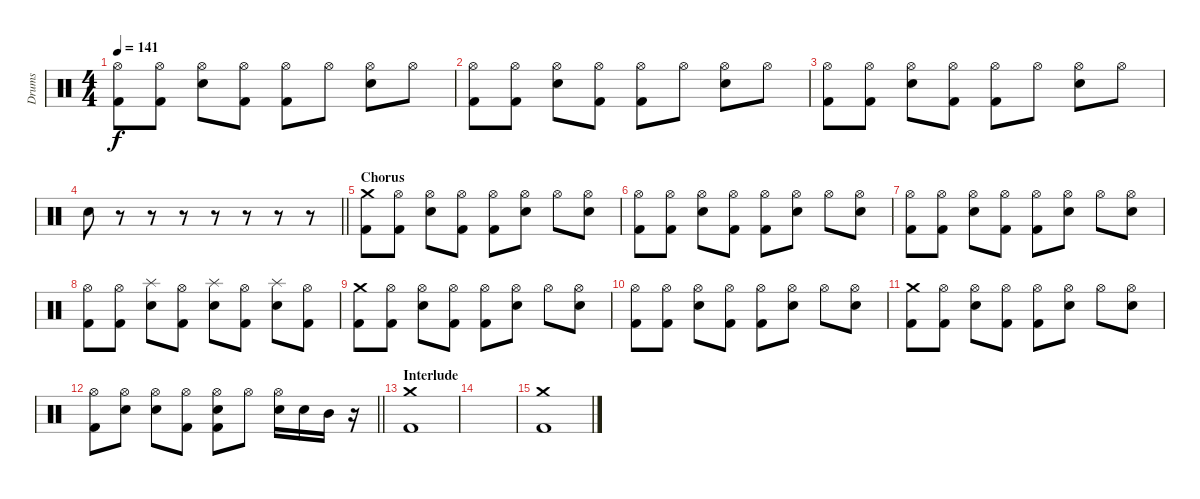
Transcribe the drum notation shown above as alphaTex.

\track ("Drums" "Drums") {instrument percussion}
\staff {score}
\articulation defaults
\ts (4 4)
\tempo 141
\clef neutral
\ks c
("Hi-Hat (open)" "Kick (hit) 2").8{dy f} ("Hi-Hat (open)" "Kick (hit) 2").8 ("Hi-Hat (open)" "Electric Snare (hit)").8 ("Hi-Hat (open)" "Kick (hit) 2").8 ("Hi-Hat (open)" "Kick (hit) 2").8 "Hi-Hat (open)".8 ("Hi-Hat (open)" "Electric Snare (hit)").8 "Hi-Hat (open)".8 |
("Hi-Hat (open)" "Kick (hit) 2").8 ("Hi-Hat (open)" "Kick (hit) 2").8 ("Hi-Hat (open)" "Electric Snare (hit)").8 ("Hi-Hat (open)" "Kick (hit) 2").8 ("Hi-Hat (open)" "Kick (hit) 2").8 "Hi-Hat (open)".8 ("Hi-Hat (open)" "Electric Snare (hit)").8 "Hi-Hat (open)".8 |
("Hi-Hat (open)" "Kick (hit) 2").8 ("Hi-Hat (open)" "Kick (hit) 2").8 ("Hi-Hat (open)" "Electric Snare (hit)").8 ("Hi-Hat (open)" "Kick (hit) 2").8 ("Hi-Hat (open)" "Kick (hit) 2").8 "Hi-Hat (open)".8 ("Hi-Hat (open)" "Electric Snare (hit)").8 "Hi-Hat (open)".8 |
\barLineRight lightlight "Electric Snare (hit)".8
r.8 r.8 r.8 r.8 r.8 r.8 r.8 |
\section ("" "Chorus")
("Crash medium (hit)" "Kick (hit) 2").8 ("Hi-Hat (open)" "Kick (hit) 2").8 ("Hi-Hat (open)" "Electric Snare (hit)").8 ("Hi-Hat (open)" "Kick (hit) 2").8 ("Hi-Hat (open)" "Kick (hit) 2").8 ("Hi-Hat (open)" "Electric Snare (hit)").8 "Hi-Hat (open)".8 ("Hi-Hat (open)" "Electric Snare (hit)").8 |
("Hi-Hat (open)" "Kick (hit) 2").8 ("Hi-Hat (open)" "Kick (hit) 2").8 ("Hi-Hat (open)" "Electric Snare (hit)").8 ("Hi-Hat (open)" "Kick (hit) 2").8 ("Hi-Hat (open)" "Kick (hit) 2").8 ("Hi-Hat (open)" "Electric Snare (hit)").8 "Hi-Hat (open)".8 ("Hi-Hat (open)" "Electric Snare (hit)").8 |
("Hi-Hat (open)" "Kick (hit) 2").8 ("Hi-Hat (open)" "Kick (hit) 2").8 ("Hi-Hat (open)" "Electric Snare (hit)").8 ("Hi-Hat (open)" "Kick (hit) 2").8 ("Hi-Hat (open)" "Kick (hit) 2").8 ("Hi-Hat (open)" "Electric Snare (hit)").8 "Hi-Hat (open)".8 ("Hi-Hat (open)" "Electric Snare (hit)").8 |
("Hi-Hat (open)" "Kick (hit) 2").8 ("Hi-Hat (open)" "Kick (hit) 2").8 ("Splash (hit)" "Electric Snare (hit)").8 ("Hi-Hat (open)" "Kick (hit) 2").8 ("Splash (hit)" "Electric Snare (hit)").8 ("Hi-Hat (open)" "Kick (hit) 2").8 ("Splash (hit)" "Electric Snare (hit)").8 ("Hi-Hat (open)" "Kick (hit) 2").8 |
("Crash medium (hit)" "Kick (hit) 2").8 ("Hi-Hat (open)" "Kick (hit) 2").8 ("Hi-Hat (open)" "Electric Snare (hit)").8 ("Hi-Hat (open)" "Kick (hit) 2").8 ("Hi-Hat (open)" "Kick (hit) 2").8 ("Hi-Hat (open)" "Electric Snare (hit)").8 "Hi-Hat (open)".8 ("Hi-Hat (open)" "Electric Snare (hit)").8 |
("Hi-Hat (open)" "Kick (hit) 2").8 ("Hi-Hat (open)" "Kick (hit) 2").8 ("Hi-Hat (open)" "Electric Snare (hit)").8 ("Hi-Hat (open)" "Kick (hit) 2").8 ("Hi-Hat (open)" "Kick (hit) 2").8 ("Hi-Hat (open)" "Electric Snare (hit)").8 "Hi-Hat (open)".8 ("Hi-Hat (open)" "Electric Snare (hit)").8 |
("Crash medium (hit)" "Kick (hit) 2").8 ("Hi-Hat (open)" "Kick (hit) 2").8 ("Hi-Hat (open)" "Electric Snare (hit)").8 ("Hi-Hat (open)" "Kick (hit) 2").8 ("Hi-Hat (open)" "Kick (hit) 2").8 ("Hi-Hat (open)" "Electric Snare (hit)").8 "Hi-Hat (open)".8 ("Hi-Hat (open)" "Electric Snare (hit)").8 |
\barLineRight lightlight
("Hi-Hat (open)" "Kick (hit) 2").8 ("Hi-Hat (open)" "Electric Snare (hit)").8 ("Hi-Hat (open)" "Electric Snare (hit)").8 ("Hi-Hat (open)" "Kick (hit) 2").8 ("Hi-Hat (open)" "Electric Snare (hit)" "Kick (hit) 2").8 "Hi-Hat (open)".8 ("Hi-Hat (open)" "Electric Snare (hit)").16 "Electric Snare (hit)".16 "Mid Tom (hit)".16 r.16 |
\section ("" "Interlude")
("Crash medium (hit)" "Kick (hit) 2").1 |
|
("Crash medium (hit)" "Kick (hit) 2").1
